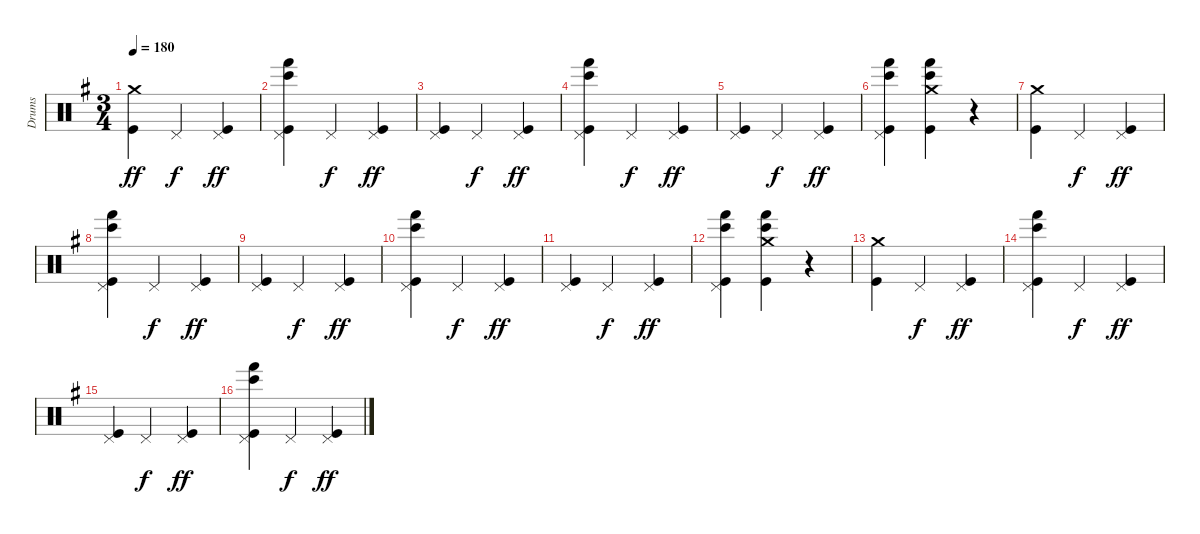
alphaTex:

\track ("Drums" "Drums") {instrument percussion bank 24}
\staff {score}
\articulation defaults
\ts (3 4)
\tempo 180
\clef neutral
\ks eminor
("Crash medium (hit)" "Kick (hit)").4{dy ff} "Pedal Hi-Hat (hit)".4{dy f} ("Pedal Hi-Hat (hit)" "Kick (hit)").4{dy ff} |
("Pedal Hi-Hat (hit)" "Bongo High (hit)" "Hand (hit)" "Kick (hit)").4 "Pedal Hi-Hat (hit)".4{dy f} ("Pedal Hi-Hat (hit)" "Kick (hit)").4{dy ff} |
("Pedal Hi-Hat (hit)" "Kick (hit)").4 "Pedal Hi-Hat (hit)".4{dy f} ("Pedal Hi-Hat (hit)" "Kick (hit)").4{dy ff} |
("Pedal Hi-Hat (hit)" "Bongo High (hit)" "Hand (hit)" "Kick (hit)").4 "Pedal Hi-Hat (hit)".4{dy f} ("Pedal Hi-Hat (hit)" "Kick (hit)").4{dy ff} |
("Pedal Hi-Hat (hit)" "Kick (hit)").4 "Pedal Hi-Hat (hit)".4{dy f} ("Pedal Hi-Hat (hit)" "Kick (hit)").4{dy ff} |
("Pedal Hi-Hat (hit)" "Bongo High (hit)" "Hand (hit)" "Kick (hit)").4 ("Crash medium (hit)" "Bongo High (hit)" "Hand (hit)" "Kick (hit)").4 r.4 |
("Crash medium (hit)" "Kick (hit)").4 "Pedal Hi-Hat (hit)".4{dy f} ("Pedal Hi-Hat (hit)" "Kick (hit)").4{dy ff} |
("Pedal Hi-Hat (hit)" "Bongo High (hit)" "Hand (hit)" "Kick (hit)").4 "Pedal Hi-Hat (hit)".4{dy f} ("Pedal Hi-Hat (hit)" "Kick (hit)").4{dy ff} |
("Pedal Hi-Hat (hit)" "Kick (hit)").4 "Pedal Hi-Hat (hit)".4{dy f} ("Pedal Hi-Hat (hit)" "Kick (hit)").4{dy ff} |
("Pedal Hi-Hat (hit)" "Bongo High (hit)" "Hand (hit)" "Kick (hit)").4 "Pedal Hi-Hat (hit)".4{dy f} ("Pedal Hi-Hat (hit)" "Kick (hit)").4{dy ff} |
("Pedal Hi-Hat (hit)" "Kick (hit)").4 "Pedal Hi-Hat (hit)".4{dy f} ("Pedal Hi-Hat (hit)" "Kick (hit)").4{dy ff} |
("Pedal Hi-Hat (hit)" "Bongo High (hit)" "Hand (hit)" "Kick (hit)").4 ("Crash medium (hit)" "Bongo High (hit)" "Hand (hit)" "Kick (hit)").4 r.4 |
("Crash medium (hit)" "Kick (hit)").4 "Pedal Hi-Hat (hit)".4{dy f} ("Pedal Hi-Hat (hit)" "Kick (hit)").4{dy ff} |
("Pedal Hi-Hat (hit)" "Bongo High (hit)" "Hand (hit)" "Kick (hit)").4 "Pedal Hi-Hat (hit)".4{dy f} ("Pedal Hi-Hat (hit)" "Kick (hit)").4{dy ff} |
("Pedal Hi-Hat (hit)" "Kick (hit)").4 "Pedal Hi-Hat (hit)".4{dy f} ("Pedal Hi-Hat (hit)" "Kick (hit)").4{dy ff} |
("Pedal Hi-Hat (hit)" "Bongo High (hit)" "Hand (hit)" "Kick (hit)").4 "Pedal Hi-Hat (hit)".4{dy f} ("Pedal Hi-Hat (hit)" "Kick (hit)").4{dy ff}
